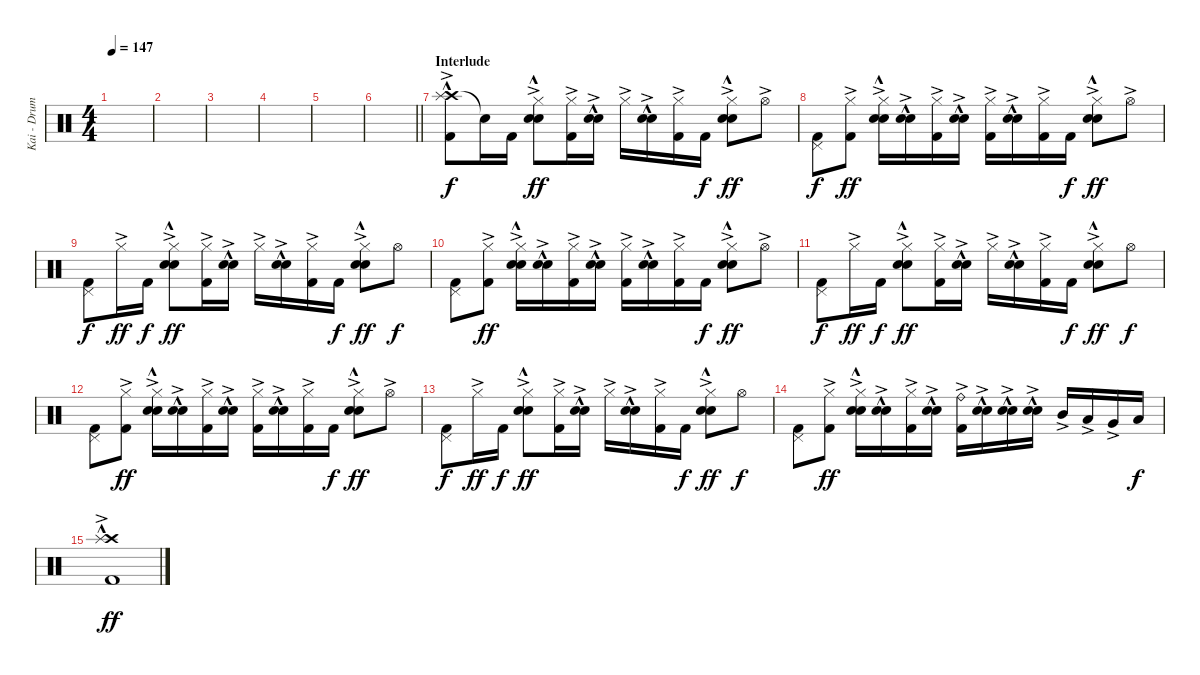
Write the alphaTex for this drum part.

\track ("Kai - Drums" "Kai - Drum") {instrument percussion}
\staff {score}
\articulation defaults
\ts (4 4)
\tempo 147
\clef neutral
\ks c
|
|
|
|
|
\barLineRight lightlight
|
\section ("" "Interlude")
("Crash high (hit)"{hac} "Splash (hit)"{ac} "Kick (hit) 2").8 "Snare (hit)"{t}.16{dy f} "Kick (hit) 2".16 ("Hi-Hat (closed)"{ac} "Electric Snare (hit)"{hac} "Snare (hit) 2"{ac}).8{dy ff} ("Hi-Hat (closed)"{ac} "Kick (hit) 2").16 ("Electric Snare (hit)"{hac} "Snare (hit) 2"{ac}).16 "Hi-Hat (closed)"{ac}.16 ("Electric Snare (hit)"{hac} "Snare (hit) 2"{ac}).16 ("Hi-Hat (closed)"{ac} "Kick (hit) 2").16 "Kick (hit) 2".16{dy f} ("Hi-Hat (closed)"{ac} "Electric Snare (hit)"{hac} "Snare (hit) 2"{ac}).8{dy ff} "Hi-Hat (open)"{ac}.8 |
("Pedal Hi-Hat (hit)" "Kick (hit) 2").8{dy f} ("Hi-Hat (closed)"{ac} "Kick (hit) 2").8{dy ff} ("Hi-Hat (closed)"{ac} "Electric Snare (hit)"{hac} "Snare (hit) 2"{ac}).16 ("Electric Snare (hit)"{hac} "Snare (hit) 2"{ac}).16 ("Hi-Hat (closed)"{ac} "Kick (hit) 2").16 ("Electric Snare (hit)"{hac} "Snare (hit) 2"{ac}).16 ("Hi-Hat (closed)"{ac} "Kick (hit) 2").16 ("Electric Snare (hit)"{hac} "Snare (hit) 2"{ac}).16 ("Hi-Hat (closed)"{ac} "Kick (hit) 2").16 "Kick (hit) 2".16{dy f} ("Hi-Hat (closed)"{ac} "Electric Snare (hit)"{hac} "Snare (hit) 2"{ac}).8{dy ff} "Hi-Hat (open)"{ac}.8 |
("Pedal Hi-Hat (hit)" "Kick (hit) 2").8{dy f} "Hi-Hat (closed)"{ac}.16{dy ff} "Kick (hit) 2".16{dy f} ("Hi-Hat (closed)"{ac} "Electric Snare (hit)"{hac} "Snare (hit) 2"{ac}).8{dy ff} ("Hi-Hat (closed)"{ac} "Kick (hit) 2").16 ("Electric Snare (hit)"{hac} "Snare (hit) 2"{ac}).16 "Hi-Hat (closed)"{ac}.16 ("Electric Snare (hit)"{hac} "Snare (hit) 2"{ac}).16 ("Hi-Hat (closed)"{ac} "Kick (hit) 2").16 "Kick (hit) 2".16{dy f} ("Hi-Hat (closed)"{ac} "Electric Snare (hit)"{hac} "Snare (hit) 2"{ac}).8{dy ff} "Hi-Hat (open)".8{dy f} |
("Pedal Hi-Hat (hit)" "Kick (hit) 2").8 ("Hi-Hat (closed)"{ac} "Kick (hit) 2").8{dy ff} ("Hi-Hat (closed)"{ac} "Electric Snare (hit)"{hac} "Snare (hit) 2"{ac}).16 ("Electric Snare (hit)"{hac} "Snare (hit) 2"{ac}).16 ("Hi-Hat (closed)"{ac} "Kick (hit) 2").16 ("Electric Snare (hit)"{hac} "Snare (hit) 2"{ac}).16 ("Hi-Hat (closed)"{ac} "Kick (hit) 2").16 ("Electric Snare (hit)"{hac} "Snare (hit) 2"{ac}).16 ("Hi-Hat (closed)"{ac} "Kick (hit) 2").16 "Kick (hit) 2".16{dy f} ("Hi-Hat (closed)"{ac} "Electric Snare (hit)"{hac} "Snare (hit) 2"{ac}).8{dy ff} "Hi-Hat (open)"{ac}.8 |
("Pedal Hi-Hat (hit)" "Kick (hit) 2").8{dy f} "Hi-Hat (closed)"{ac}.16{dy ff} "Kick (hit) 2".16{dy f} ("Hi-Hat (closed)"{ac} "Electric Snare (hit)"{hac} "Snare (hit) 2"{ac}).8{dy ff} ("Hi-Hat (closed)"{ac} "Kick (hit) 2").16 ("Electric Snare (hit)"{hac} "Snare (hit) 2"{ac}).16 "Hi-Hat (closed)"{ac}.16 ("Electric Snare (hit)"{hac} "Snare (hit) 2"{ac}).16 ("Hi-Hat (closed)"{ac} "Kick (hit) 2").16 "Kick (hit) 2".16{dy f} ("Hi-Hat (closed)"{ac} "Electric Snare (hit)"{hac} "Snare (hit) 2"{ac}).8{dy ff} "Hi-Hat (open)".8{dy f} |
("Pedal Hi-Hat (hit)" "Kick (hit) 2").8 ("Hi-Hat (closed)"{ac} "Kick (hit) 2").8{dy ff} ("Hi-Hat (closed)"{ac} "Electric Snare (hit)"{hac} "Snare (hit) 2"{ac}).16 ("Electric Snare (hit)"{hac} "Snare (hit) 2"{ac}).16 ("Hi-Hat (closed)"{ac} "Kick (hit) 2").16 ("Electric Snare (hit)"{hac} "Snare (hit) 2"{ac}).16 ("Hi-Hat (closed)"{ac} "Kick (hit) 2").16 ("Electric Snare (hit)"{hac} "Snare (hit) 2"{ac}).16 ("Hi-Hat (closed)"{ac} "Kick (hit) 2").16 "Kick (hit) 2".16{dy f} ("Hi-Hat (closed)"{ac} "Electric Snare (hit)"{hac} "Snare (hit) 2"{ac}).8{dy ff} "Hi-Hat (open)"{ac}.8 |
("Pedal Hi-Hat (hit)" "Kick (hit) 2").8{dy f} "Hi-Hat (closed)"{ac}.16{dy ff} "Kick (hit) 2".16{dy f} ("Hi-Hat (closed)"{ac} "Electric Snare (hit)"{hac} "Snare (hit) 2"{ac}).8{dy ff} ("Hi-Hat (closed)"{ac} "Kick (hit) 2").16 ("Electric Snare (hit)"{hac} "Snare (hit) 2"{ac}).16 "Hi-Hat (closed)"{ac}.16 ("Electric Snare (hit)"{hac} "Snare (hit) 2"{ac}).16 ("Hi-Hat (closed)"{ac} "Kick (hit) 2").16 "Kick (hit) 2".16{dy f} ("Hi-Hat (closed)"{ac} "Electric Snare (hit)"{hac} "Snare (hit) 2"{ac}).8{dy ff} "Hi-Hat (open)".8{dy f} |
("Pedal Hi-Hat (hit)" "Kick (hit) 2").8 ("Hi-Hat (closed)"{ac} "Kick (hit) 2").8{dy ff} ("Hi-Hat (closed)"{ac} "Electric Snare (hit)"{hac} "Snare (hit) 2"{ac}).16 ("Electric Snare (hit)"{hac} "Snare (hit) 2"{ac}).16 ("Hi-Hat (closed)"{ac} "Kick (hit) 2").16 ("Electric Snare (hit)"{hac} "Snare (hit) 2"{ac}).16 ("Ride (bell)"{ac} "Kick (hit) 2").16 ("Electric Snare (hit)"{hac} "Snare (hit) 2"{ac}).16 ("Electric Snare (hit)"{hac} "Snare (hit) 2"{ac}).16 ("Electric Snare (hit)"{hac} "Snare (hit) 2"{ac}).16 "Mid Tom (hit)"{ac}.16 "Low Tom (hit)"{ac}.16 "Very Low Tom (hit)"{ac}.16 "Low Floor Tom (hit)".16{dy f} |
("Crash high (hit)"{hac} "Splash (hit)"{ac} "Kick (hit) 2").1{dy ff}
